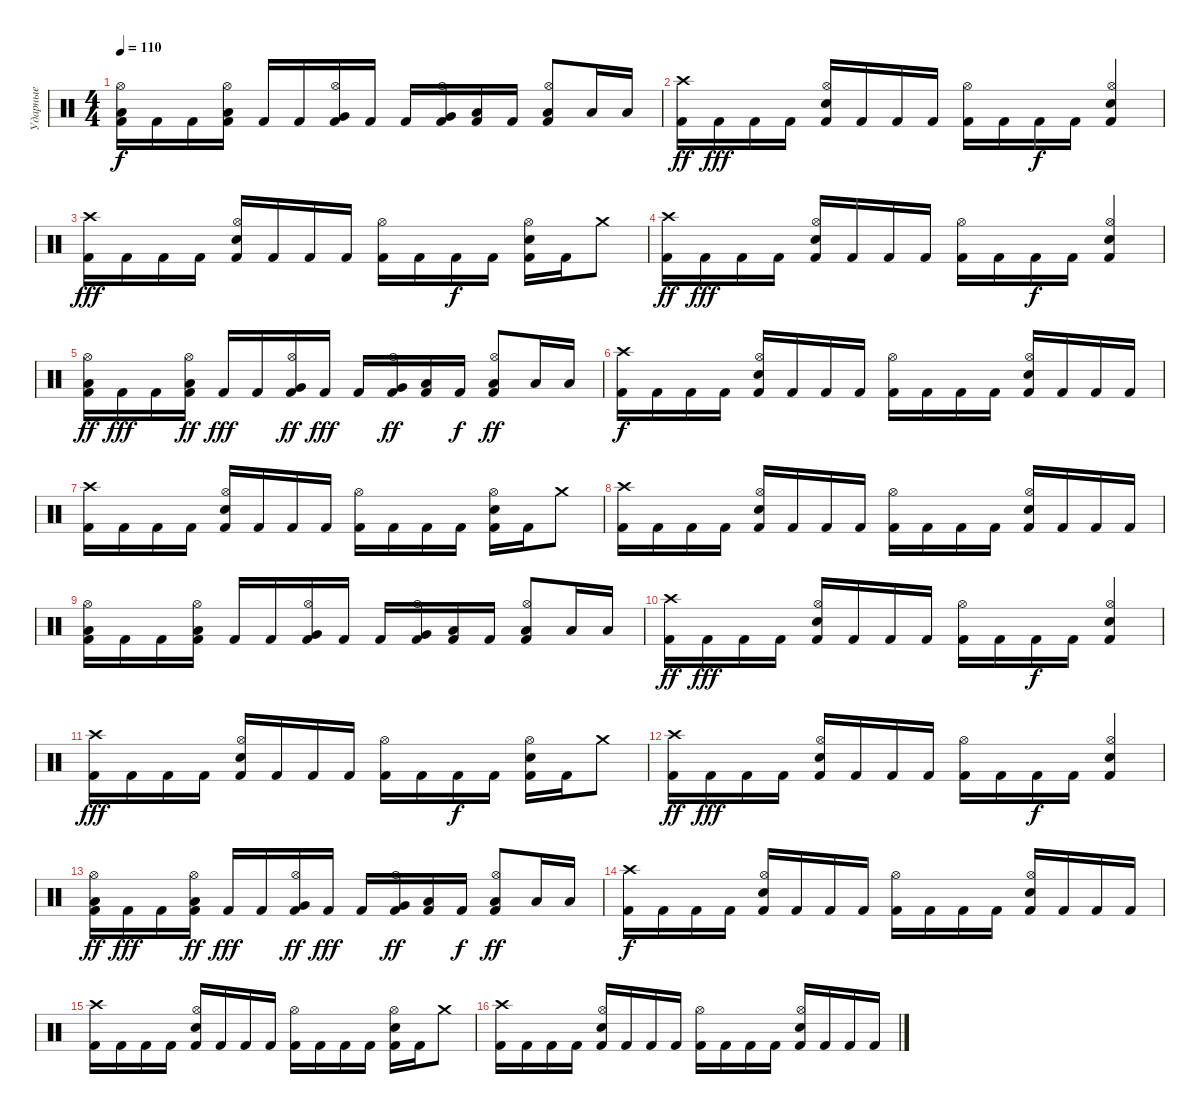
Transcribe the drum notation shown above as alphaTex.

\track ("Ударные" "Ударные") {instrument percussion}
\staff {score}
\articulation defaults
\ts (4 4)
\tempo 110
\clef neutral
\ks c
("Kick (hit) 2" "Low Floor Tom (hit)" "Hi-Hat (open)").16{dy f} "Kick (hit) 2".16 "Kick (hit) 2".16 ("Kick (hit) 2" "Low Floor Tom (hit)" "Hi-Hat (open)").16 "Kick (hit) 2".16 "Kick (hit) 2".16 ("Kick (hit) 2" "Very Low Tom (hit)" "Hi-Hat (open)").16 "Kick (hit) 2".16 "Kick (hit) 2".16 ("Kick (hit) 2" "Very Low Tom (hit)" "Hi-Hat (open)").16 ("Kick (hit) 2" "Low Tom (hit)").16 "Kick (hit) 2".16 ("Kick (hit) 2" "Low Tom (hit)" "Hi-Hat (open)").8 "Low Floor Tom (hit)".16 "Low Floor Tom (hit)".16 |
("Kick (hit) 2" "Crash high (hit)").16{dy ff} "Kick (hit) 2".16{dy fff} "Kick (hit) 2".16 "Kick (hit) 2".16 ("Kick (hit) 2" "Hi-Hat (open)" "Snare (hit) 2").16 "Kick (hit) 2".16 "Kick (hit) 2".16 "Kick (hit) 2".16 ("Kick (hit) 2" "Hi-Hat (open)").16 "Kick (hit) 2".16 "Kick (hit) 2".16{dy f} "Kick (hit) 2".16 ("Kick (hit) 2" "Hi-Hat (open)" "Snare (hit) 2").4 |
("Kick (hit) 2" "Crash high (hit)").16{dy fff} "Kick (hit) 2".16 "Kick (hit) 2".16 "Kick (hit) 2".16 ("Kick (hit) 2" "Hi-Hat (open)" "Snare (hit) 2").16 "Kick (hit) 2".16 "Kick (hit) 2".16 "Kick (hit) 2".16 ("Kick (hit) 2" "Hi-Hat (open)").16 "Kick (hit) 2".16 "Kick (hit) 2".16{dy f} "Kick (hit) 2".16 ("Kick (hit) 2" "Hi-Hat (open)" "Snare (hit) 2").16 "Kick (hit) 2".16 "Crash medium (hit)".8 |
("Kick (hit) 2" "Crash high (hit)").16{dy ff} "Kick (hit) 2".16{dy fff} "Kick (hit) 2".16 "Kick (hit) 2".16 ("Kick (hit) 2" "Hi-Hat (open)" "Snare (hit) 2").16 "Kick (hit) 2".16 "Kick (hit) 2".16 "Kick (hit) 2".16 ("Kick (hit) 2" "Hi-Hat (open)").16 "Kick (hit) 2".16 "Kick (hit) 2".16{dy f} "Kick (hit) 2".16 ("Kick (hit) 2" "Hi-Hat (open)" "Snare (hit) 2").4 |
("Kick (hit) 2" "Low Floor Tom (hit)" "Hi-Hat (open)").16{dy ff} "Kick (hit) 2".16{dy fff} "Kick (hit) 2".16 ("Kick (hit) 2" "Low Floor Tom (hit)" "Hi-Hat (open)").16{dy ff} "Kick (hit) 2".16{dy fff} "Kick (hit) 2".16 ("Kick (hit) 2" "Very Low Tom (hit)" "Hi-Hat (open)").16{dy ff} "Kick (hit) 2".16{dy fff} "Kick (hit) 2".16 ("Kick (hit) 2" "Very Low Tom (hit)" "Hi-Hat (open)").16{dy ff} ("Kick (hit) 2" "Low Tom (hit)").16 "Kick (hit) 2".16{dy f} ("Kick (hit) 2" "Low Tom (hit)" "Hi-Hat (open)").8{dy ff} "Low Floor Tom (hit)".16 "Low Floor Tom (hit)".16 |
("Kick (hit) 2" "Crash high (hit)").16{dy f} "Kick (hit) 2".16 "Kick (hit) 2".16 "Kick (hit) 2".16 ("Kick (hit) 2" "Hi-Hat (open)" "Snare (hit) 2").16 "Kick (hit) 2".16 "Kick (hit) 2".16 "Kick (hit) 2".16 ("Kick (hit) 2" "Hi-Hat (open)").16 "Kick (hit) 2".16 "Kick (hit) 2".16 "Kick (hit) 2".16 ("Kick (hit) 2" "Hi-Hat (open)" "Snare (hit) 2").16 "Kick (hit) 2".16 "Kick (hit) 2".16 "Kick (hit) 2".16 |
("Kick (hit) 2" "Crash high (hit)").16 "Kick (hit) 2".16 "Kick (hit) 2".16 "Kick (hit) 2".16 ("Kick (hit) 2" "Hi-Hat (open)" "Snare (hit) 2").16 "Kick (hit) 2".16 "Kick (hit) 2".16 "Kick (hit) 2".16 ("Kick (hit) 2" "Hi-Hat (open)").16 "Kick (hit) 2".16 "Kick (hit) 2".16 "Kick (hit) 2".16 ("Kick (hit) 2" "Hi-Hat (open)" "Snare (hit) 2").16 "Kick (hit) 2".16 "Crash medium (hit)".8 |
("Kick (hit) 2" "Crash high (hit)").16 "Kick (hit) 2".16 "Kick (hit) 2".16 "Kick (hit) 2".16 ("Kick (hit) 2" "Hi-Hat (open)" "Snare (hit) 2").16 "Kick (hit) 2".16 "Kick (hit) 2".16 "Kick (hit) 2".16 ("Kick (hit) 2" "Hi-Hat (open)").16 "Kick (hit) 2".16 "Kick (hit) 2".16 "Kick (hit) 2".16 ("Kick (hit) 2" "Hi-Hat (open)" "Snare (hit) 2").16 "Kick (hit) 2".16 "Kick (hit) 2".16 "Kick (hit) 2".16 |
("Kick (hit) 2" "Low Floor Tom (hit)" "Hi-Hat (open)").16 "Kick (hit) 2".16 "Kick (hit) 2".16 ("Kick (hit) 2" "Low Floor Tom (hit)" "Hi-Hat (open)").16 "Kick (hit) 2".16 "Kick (hit) 2".16 ("Kick (hit) 2" "Very Low Tom (hit)" "Hi-Hat (open)").16 "Kick (hit) 2".16 "Kick (hit) 2".16 ("Kick (hit) 2" "Very Low Tom (hit)" "Hi-Hat (open)").16 ("Kick (hit) 2" "Low Tom (hit)").16 "Kick (hit) 2".16 ("Kick (hit) 2" "Low Tom (hit)" "Hi-Hat (open)").8 "Low Floor Tom (hit)".16 "Low Floor Tom (hit)".16 |
("Kick (hit) 2" "Crash high (hit)").16{dy ff} "Kick (hit) 2".16{dy fff} "Kick (hit) 2".16 "Kick (hit) 2".16 ("Kick (hit) 2" "Hi-Hat (open)" "Snare (hit) 2").16 "Kick (hit) 2".16 "Kick (hit) 2".16 "Kick (hit) 2".16 ("Kick (hit) 2" "Hi-Hat (open)").16 "Kick (hit) 2".16 "Kick (hit) 2".16{dy f} "Kick (hit) 2".16 ("Kick (hit) 2" "Hi-Hat (open)" "Snare (hit) 2").4 |
("Kick (hit) 2" "Crash high (hit)").16{dy fff} "Kick (hit) 2".16 "Kick (hit) 2".16 "Kick (hit) 2".16 ("Kick (hit) 2" "Hi-Hat (open)" "Snare (hit) 2").16 "Kick (hit) 2".16 "Kick (hit) 2".16 "Kick (hit) 2".16 ("Kick (hit) 2" "Hi-Hat (open)").16 "Kick (hit) 2".16 "Kick (hit) 2".16{dy f} "Kick (hit) 2".16 ("Kick (hit) 2" "Hi-Hat (open)" "Snare (hit) 2").16 "Kick (hit) 2".16 "Crash medium (hit)".8 |
("Kick (hit) 2" "Crash high (hit)").16{dy ff} "Kick (hit) 2".16{dy fff} "Kick (hit) 2".16 "Kick (hit) 2".16 ("Kick (hit) 2" "Hi-Hat (open)" "Snare (hit) 2").16 "Kick (hit) 2".16 "Kick (hit) 2".16 "Kick (hit) 2".16 ("Kick (hit) 2" "Hi-Hat (open)").16 "Kick (hit) 2".16 "Kick (hit) 2".16{dy f} "Kick (hit) 2".16 ("Kick (hit) 2" "Hi-Hat (open)" "Snare (hit) 2").4 |
("Kick (hit) 2" "Low Floor Tom (hit)" "Hi-Hat (open)").16{dy ff} "Kick (hit) 2".16{dy fff} "Kick (hit) 2".16 ("Kick (hit) 2" "Low Floor Tom (hit)" "Hi-Hat (open)").16{dy ff} "Kick (hit) 2".16{dy fff} "Kick (hit) 2".16 ("Kick (hit) 2" "Very Low Tom (hit)" "Hi-Hat (open)").16{dy ff} "Kick (hit) 2".16{dy fff} "Kick (hit) 2".16 ("Kick (hit) 2" "Very Low Tom (hit)" "Hi-Hat (open)").16{dy ff} ("Kick (hit) 2" "Low Tom (hit)").16 "Kick (hit) 2".16{dy f} ("Kick (hit) 2" "Low Tom (hit)" "Hi-Hat (open)").8{dy ff} "Low Floor Tom (hit)".16 "Low Floor Tom (hit)".16 |
("Kick (hit) 2" "Crash high (hit)").16{dy f} "Kick (hit) 2".16 "Kick (hit) 2".16 "Kick (hit) 2".16 ("Kick (hit) 2" "Hi-Hat (open)" "Snare (hit) 2").16 "Kick (hit) 2".16 "Kick (hit) 2".16 "Kick (hit) 2".16 ("Kick (hit) 2" "Hi-Hat (open)").16 "Kick (hit) 2".16 "Kick (hit) 2".16 "Kick (hit) 2".16 ("Kick (hit) 2" "Hi-Hat (open)" "Snare (hit) 2").16 "Kick (hit) 2".16 "Kick (hit) 2".16 "Kick (hit) 2".16 |
("Kick (hit) 2" "Crash high (hit)").16 "Kick (hit) 2".16 "Kick (hit) 2".16 "Kick (hit) 2".16 ("Kick (hit) 2" "Hi-Hat (open)" "Snare (hit) 2").16 "Kick (hit) 2".16 "Kick (hit) 2".16 "Kick (hit) 2".16 ("Kick (hit) 2" "Hi-Hat (open)").16 "Kick (hit) 2".16 "Kick (hit) 2".16 "Kick (hit) 2".16 ("Kick (hit) 2" "Hi-Hat (open)" "Snare (hit) 2").16 "Kick (hit) 2".16 "Crash medium (hit)".8 |
("Kick (hit) 2" "Crash high (hit)").16 "Kick (hit) 2".16 "Kick (hit) 2".16 "Kick (hit) 2".16 ("Kick (hit) 2" "Hi-Hat (open)" "Snare (hit) 2").16 "Kick (hit) 2".16 "Kick (hit) 2".16 "Kick (hit) 2".16 ("Kick (hit) 2" "Hi-Hat (open)").16 "Kick (hit) 2".16 "Kick (hit) 2".16 "Kick (hit) 2".16 ("Kick (hit) 2" "Hi-Hat (open)" "Snare (hit) 2").16 "Kick (hit) 2".16 "Kick (hit) 2".16 "Kick (hit) 2".16
